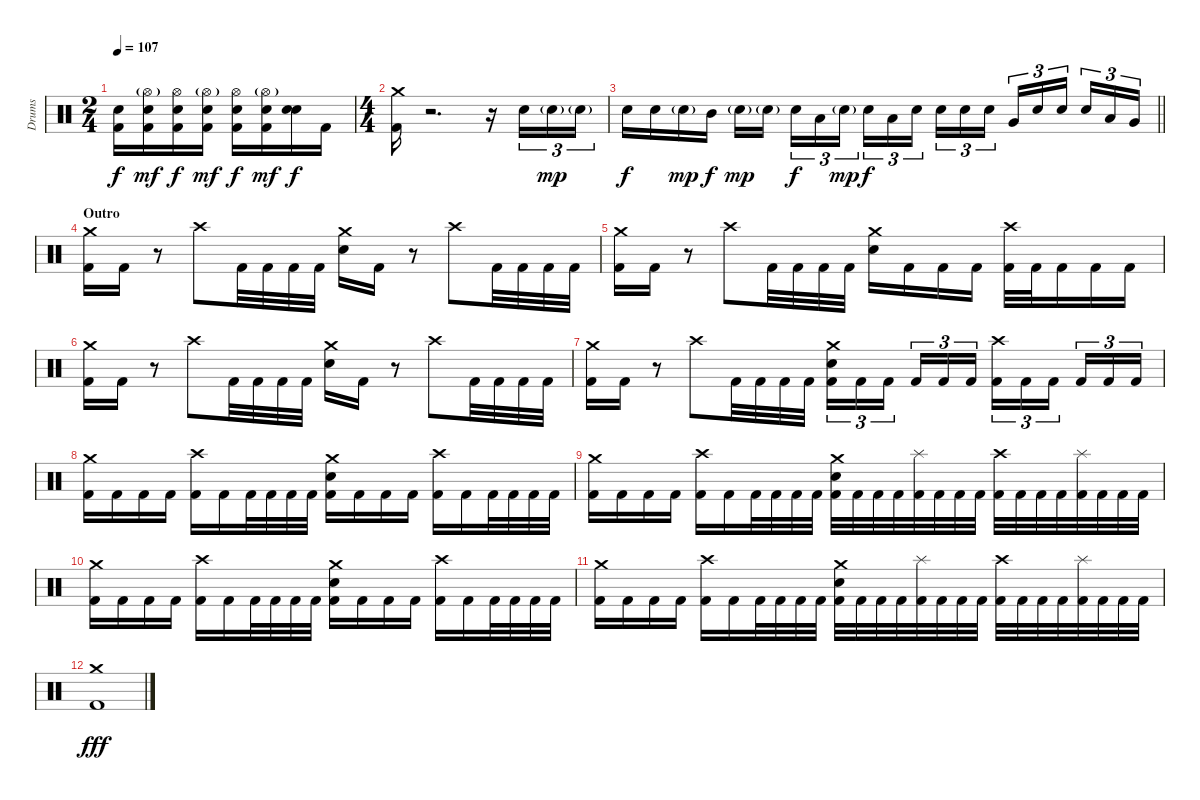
\track ("Drums" "Drums") {instrument percussion}
\staff {score}
\articulation defaults
\ts (2 4)
\tempo 107
\clef neutral
\ks c
("Electric Snare (hit)" "Kick (hit) 2").16{dy f} ("Hi-Hat (open)"{g} "Electric Snare (hit)" "Kick (hit) 2").16{dy mf} ("Hi-Hat (open)" "Electric Snare (hit)" "Kick (hit) 2").16{dy f} ("Hi-Hat (open)"{g} "Electric Snare (hit)" "Kick (hit) 2").16{dy mf} ("Hi-Hat (open)" "Electric Snare (hit)" "Kick (hit) 2").16{dy f} ("Hi-Hat (open)"{g} "Electric Snare (hit)" "Kick (hit) 2").16{dy mf} ("Electric Snare (hit)" "Electric Snare (hit)").16{dy f} "Kick (hit) 2".16 |
\ts (4 4)
("Crash medium (hit)" "Kick (hit) 2").16 r.2{d} r.16 "Electric Snare (hit)".16{tu (3 2)} "Electric Snare (hit)"{g}.16{tu (3 2) dy mp} "Electric Snare (hit)"{g}.16{tu (3 2)} |
\barLineRight lightlight "Electric Snare (hit)".16{dy f} "Electric Snare (hit)".16 "Electric Snare (hit)"{g}.16{dy mp} "Mid Tom (hit)".16{dy f} "Electric Snare (hit)"{g}.16{dy mp} "Electric Snare (hit)"{g}.16{beam splitsecondary} "Electric Snare (hit)".16{tu (3 2) dy f} "Low Tom (hit)".16{tu (3 2)} "Electric Snare (hit)"{g}.16{tu (3 2) dy mp} "Electric Snare (hit)".16{tu (3 2) dy f} "Low Tom (hit)".16{tu (3 2)} "Electric Snare (hit)".16{tu (3 2) beam splitsecondary} "Electric Snare (hit)".16{tu (3 2)} "Electric Snare (hit)".16{tu (3 2)} "Electric Snare (hit)".16{tu (3 2)} "Very Low Tom (hit)".16{tu (3 2)} "Electric Snare (hit)".16{tu (3 2)} "Electric Snare (hit)".16{tu (3 2) beam splitsecondary} "Electric Snare (hit)".16{tu (3 2)} "Low Tom (hit)".16{tu (3 2)} "Very Low Tom (hit)".16{tu (3 2)}
|
\section ("" "Outro")
("Crash medium (hit)" "Kick (hit) 2").16 "Kick (hit) 2".16 r.8 "Crash high (hit)".8 "Kick (hit) 2".32 "Kick (hit) 2".32 "Kick (hit) 2".32 "Kick (hit) 2".32 ("Crash medium (hit)" "Electric Snare (hit)").16 "Kick (hit) 2".16 r.8 "Crash high (hit)".8 "Kick (hit) 2".32 "Kick (hit) 2".32 "Kick (hit) 2".32 "Kick (hit) 2".32 |
("Crash medium (hit)" "Kick (hit) 2").16 "Kick (hit) 2".16 r.8 "Crash high (hit)".8 "Kick (hit) 2".32 "Kick (hit) 2".32 "Kick (hit) 2".32 "Kick (hit) 2".32 ("Crash medium (hit)" "Electric Snare (hit)").16 "Kick (hit) 2".16 "Kick (hit) 2".16 "Kick (hit) 2".16 ("Crash high (hit)" "Kick (hit) 2").32 "Kick (hit) 2".32 "Kick (hit) 2".16 "Kick (hit) 2".16 "Kick (hit) 2".16 |
("Crash medium (hit)" "Kick (hit) 2").16 "Kick (hit) 2".16 r.8 "Crash high (hit)".8 "Kick (hit) 2".32 "Kick (hit) 2".32 "Kick (hit) 2".32 "Kick (hit) 2".32 ("Crash medium (hit)" "Electric Snare (hit)").16 "Kick (hit) 2".16 r.8 "Crash high (hit)".8 "Kick (hit) 2".32 "Kick (hit) 2".32 "Kick (hit) 2".32 "Kick (hit) 2".32 |
("Crash medium (hit)" "Kick (hit) 2").16 "Kick (hit) 2".16 r.8 "Crash high (hit)".8 "Kick (hit) 2".32 "Kick (hit) 2".32 "Kick (hit) 2".32 "Kick (hit) 2".32 ("Crash medium (hit)" "Electric Snare (hit)" "Kick (hit) 2").16{tu (3 2)} "Kick (hit) 2".16{tu (3 2)} "Kick (hit) 2".16{tu (3 2) beam splitsecondary} "Kick (hit) 2".16{tu (3 2)} "Kick (hit) 2".16{tu (3 2)} "Kick (hit) 2".16{tu (3 2)} ("Crash high (hit)" "Kick (hit) 2").16{tu (3 2)} "Kick (hit) 2".16{tu (3 2)} "Kick (hit) 2".16{tu (3 2) beam splitsecondary} "Kick (hit) 2".16{tu (3 2)} "Kick (hit) 2".16{tu (3 2)} "Kick (hit) 2".16{tu (3 2)} |
("Crash medium (hit)" "Kick (hit) 2").16 "Kick (hit) 2".16 "Kick (hit) 2".16 "Kick (hit) 2".16 ("Crash high (hit)" "Kick (hit) 2").16 "Kick (hit) 2".16 "Kick (hit) 2".32 "Kick (hit) 2".32 "Kick (hit) 2".32 "Kick (hit) 2".32 ("Crash medium (hit)" "Electric Snare (hit)" "Kick (hit) 2").16 "Kick (hit) 2".16 "Kick (hit) 2".16 "Kick (hit) 2".16 ("Crash high (hit)" "Kick (hit) 2").16 "Kick (hit) 2".16 "Kick (hit) 2".32 "Kick (hit) 2".32 "Kick (hit) 2".32 "Kick (hit) 2".32 |
("Crash medium (hit)" "Kick (hit) 2").16 "Kick (hit) 2".16 "Kick (hit) 2".16 "Kick (hit) 2".16 ("Crash high (hit)" "Kick (hit) 2").16 "Kick (hit) 2".16 "Kick (hit) 2".32 "Kick (hit) 2".32 "Kick (hit) 2".32 "Kick (hit) 2".32 ("Crash medium (hit)" "Electric Snare (hit)" "Kick (hit) 2").32 "Kick (hit) 2".32 "Kick (hit) 2".32 "Kick (hit) 2".32 ("Splash (hit)" "Kick (hit) 2").32 "Kick (hit) 2".32 "Kick (hit) 2".32 "Kick (hit) 2".32 ("Crash high (hit)" "Kick (hit) 2").32 "Kick (hit) 2".32 "Kick (hit) 2".32 "Kick (hit) 2".32 ("Splash (hit)" "Kick (hit) 2").32 "Kick (hit) 2".32 "Kick (hit) 2".32 "Kick (hit) 2".32 |
("Crash medium (hit)" "Kick (hit) 2").16 "Kick (hit) 2".16 "Kick (hit) 2".16 "Kick (hit) 2".16 ("Crash high (hit)" "Kick (hit) 2").16 "Kick (hit) 2".16 "Kick (hit) 2".32 "Kick (hit) 2".32 "Kick (hit) 2".32 "Kick (hit) 2".32 ("Crash medium (hit)" "Electric Snare (hit)" "Kick (hit) 2").16 "Kick (hit) 2".16 "Kick (hit) 2".16 "Kick (hit) 2".16 ("Crash high (hit)" "Kick (hit) 2").16 "Kick (hit) 2".16 "Kick (hit) 2".32 "Kick (hit) 2".32 "Kick (hit) 2".32 "Kick (hit) 2".32 |
("Crash medium (hit)" "Kick (hit) 2").16 "Kick (hit) 2".16 "Kick (hit) 2".16 "Kick (hit) 2".16 ("Crash high (hit)" "Kick (hit) 2").16 "Kick (hit) 2".16 "Kick (hit) 2".32 "Kick (hit) 2".32 "Kick (hit) 2".32 "Kick (hit) 2".32 ("Crash medium (hit)" "Electric Snare (hit)" "Kick (hit) 2").32 "Kick (hit) 2".32 "Kick (hit) 2".32 "Kick (hit) 2".32 ("Splash (hit)" "Kick (hit) 2").32 "Kick (hit) 2".32 "Kick (hit) 2".32 "Kick (hit) 2".32 ("Crash high (hit)" "Kick (hit) 2").32 "Kick (hit) 2".32 "Kick (hit) 2".32 "Kick (hit) 2".32 ("Splash (hit)" "Kick (hit) 2").32 "Kick (hit) 2".32 "Kick (hit) 2".32 "Kick (hit) 2".32 |
("Crash medium (hit)" "Kick (hit) 2").1{dy fff}
